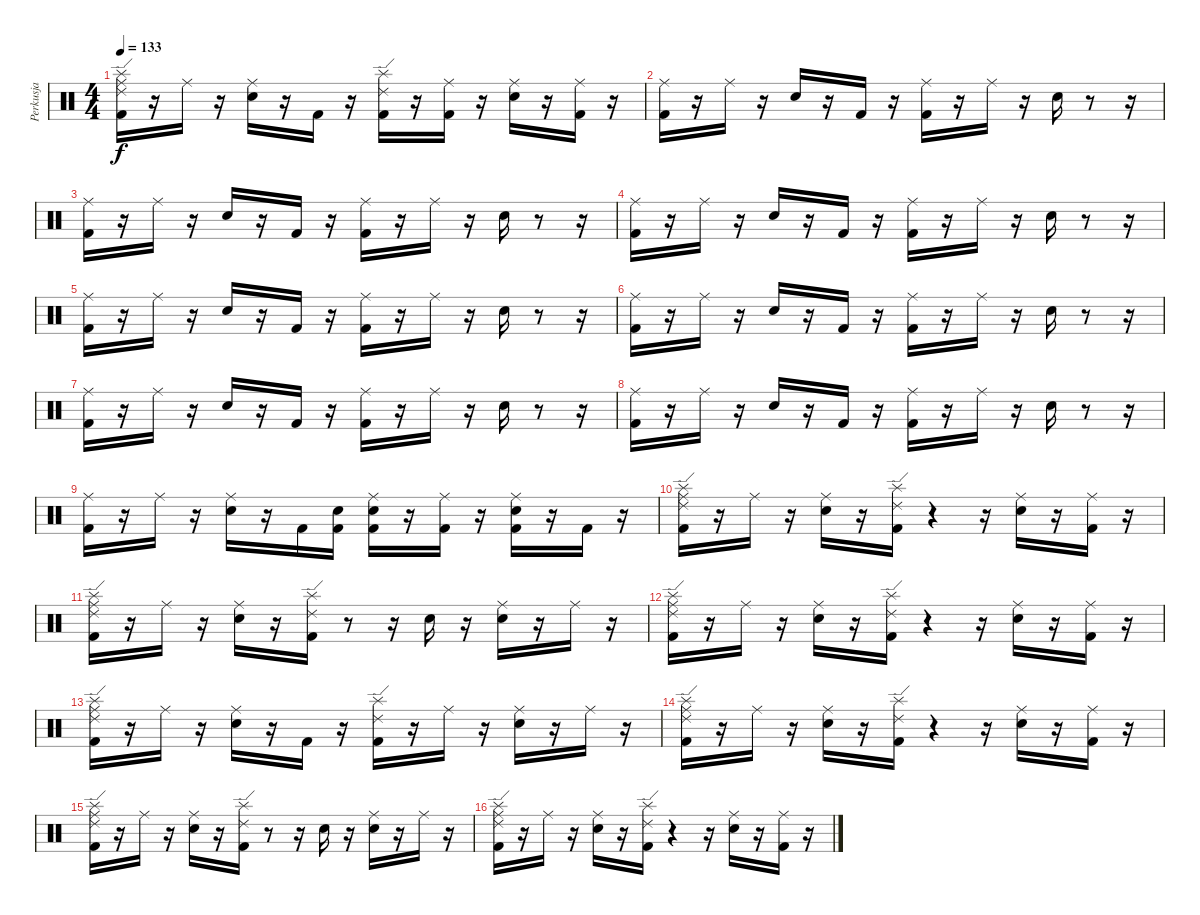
\track ("Perkusja" "Perkusja") {instrument percussion}
\staff {score}
\articulation defaults
\ts (4 4)
\tempo 133
\clef neutral
\ks c
("Ride (middle)" "Ride (edge) 2" "Splash (hit)" "Kick (hit) 2").16{dy f} r.16 "Ride (middle)".16 r.16 ("Ride (middle)" "Snare (hit) 2").16 r.16 "Kick (hit) 2".16 r.16 ("Ride (edge) 2" "Splash (hit)" "Kick (hit) 2").16 r.16 ("Kick (hit) 2" "Ride (middle)").16 r.16 ("Ride (middle)" "Snare (hit) 2").16 r.16 ("Kick (hit) 2" "Ride (middle)").16 r.16 |
("Ride (middle)" "Kick (hit) 2").16 r.16 "Ride (middle)".16 r.16 "Snare (hit) 2".16 r.16 "Kick (hit) 2".16 r.16 ("Ride (middle)" "Kick (hit) 2").16 r.16 "Ride (middle)".16 r.16 "Snare (hit) 2".16 r.8 r.16 |
("Kick (hit) 2" "Ride (middle)").16 r.16 "Ride (middle)".16 r.16 "Snare (hit) 2".16 r.16 "Kick (hit) 2".16 r.16 ("Ride (middle)" "Kick (hit) 2").16 r.16 "Ride (middle)".16 r.16 "Snare (hit) 2".16 r.8 r.16 |
("Ride (middle)" "Kick (hit) 2").16 r.16 "Ride (middle)".16 r.16 "Snare (hit) 2".16 r.16 "Kick (hit) 2".16 r.16 ("Ride (middle)" "Kick (hit) 2").16 r.16 "Ride (middle)".16 r.16 "Snare (hit) 2".16 r.8 r.16 |
("Kick (hit) 2" "Ride (middle)").16 r.16 "Ride (middle)".16 r.16 "Snare (hit) 2".16 r.16 "Kick (hit) 2".16 r.16 ("Ride (middle)" "Kick (hit) 2").16 r.16 "Ride (middle)".16 r.16 "Snare (hit) 2".16 r.8 r.16 |
("Ride (middle)" "Kick (hit) 2").16 r.16 "Ride (middle)".16 r.16 "Snare (hit) 2".16 r.16 "Kick (hit) 2".16 r.16 ("Ride (middle)" "Kick (hit) 2").16 r.16 "Ride (middle)".16 r.16 "Snare (hit) 2".16 r.8 r.16 |
("Kick (hit) 2" "Ride (middle)").16 r.16 "Ride (middle)".16 r.16 "Snare (hit) 2".16 r.16 "Kick (hit) 2".16 r.16 ("Ride (middle)" "Kick (hit) 2").16 r.16 "Ride (middle)".16 r.16 "Snare (hit) 2".16 r.8 r.16 |
("Ride (middle)" "Kick (hit) 2").16 r.16 "Ride (middle)".16 r.16 "Snare (hit) 2".16 r.16 "Kick (hit) 2".16 r.16 ("Ride (middle)" "Kick (hit) 2").16 r.16 "Ride (middle)".16 r.16 "Snare (hit) 2".16 r.8 r.16 |
("Kick (hit) 2" "Ride (middle)").16 r.16 "Ride (middle)".16 r.16 ("Ride (middle)" "Snare (hit) 2").16 r.16 "Kick (hit) 2".16 ("Snare (hit)" "Kick (hit) 2").16 ("Snare (hit)" "Ride (middle)" "Kick (hit) 2").16 r.16 ("Ride (middle)" "Kick (hit) 2").16 r.16 ("Ride (middle)" "Snare (hit) 2" "Kick (hit) 2").16 r.16 "Kick (hit) 2".16 r.16 |
("Ride (middle)" "Ride (edge) 2" "Splash (hit)" "Kick (hit) 2").16 r.16 "Ride (middle)".16 r.16 ("Ride (middle)" "Snare (hit) 2").16 r.16 ("Splash (hit)" "Ride (edge) 2" "Kick (hit) 2").16 r.4 r.16 ("Ride (middle)" "Snare (hit) 2").16 r.16 ("Ride (middle)" "Kick (hit) 2").16 r.16 |
("Ride (middle)" "Ride (edge) 2" "Splash (hit)" "Kick (hit) 2").16 r.16 "Ride (middle)".16 r.16 ("Ride (middle)" "Snare (hit) 2").16 r.16 ("Splash (hit)" "Ride (edge) 2" "Kick (hit) 2").16 r.8 r.16 "Snare (hit) 2".16 r.16 ("Ride (middle)" "Snare (hit) 2").16 r.16 "Ride (middle)".16 r.16 |
("Ride (middle)" "Ride (edge) 2" "Splash (hit)" "Kick (hit) 2").16 r.16 "Ride (middle)".16 r.16 ("Ride (middle)" "Snare (hit) 2").16 r.16 ("Splash (hit)" "Ride (edge) 2" "Kick (hit) 2").16 r.4 r.16 ("Ride (middle)" "Snare (hit) 2").16 r.16 ("Ride (middle)" "Kick (hit) 2").16 r.16 |
("Ride (middle)" "Ride (edge) 2" "Splash (hit)" "Kick (hit) 2").16 r.16 "Ride (middle)".16 r.16 ("Ride (middle)" "Snare (hit) 2").16 r.16 "Kick (hit) 2".16 r.16 ("Ride (edge) 2" "Splash (hit)" "Kick (hit) 2").16 r.16 "Ride (middle)".16 r.16 ("Ride (middle)" "Snare (hit) 2").16 r.16 "Ride (middle)".16 r.16 |
("Ride (middle)" "Ride (edge) 2" "Splash (hit)" "Kick (hit) 2").16 r.16 "Ride (middle)".16 r.16 ("Ride (middle)" "Snare (hit) 2").16 r.16 ("Splash (hit)" "Ride (edge) 2" "Kick (hit) 2").16 r.4 r.16 ("Ride (middle)" "Snare (hit) 2").16 r.16 ("Ride (middle)" "Kick (hit) 2").16 r.16 |
("Ride (middle)" "Ride (edge) 2" "Splash (hit)" "Kick (hit) 2").16 r.16 "Ride (middle)".16 r.16 ("Ride (middle)" "Snare (hit) 2").16 r.16 ("Splash (hit)" "Ride (edge) 2" "Kick (hit) 2").16 r.8 r.16 "Snare (hit) 2".16 r.16 ("Ride (middle)" "Snare (hit) 2").16 r.16 "Ride (middle)".16 r.16 |
("Ride (middle)" "Ride (edge) 2" "Splash (hit)" "Kick (hit) 2").16 r.16 "Ride (middle)".16 r.16 ("Ride (middle)" "Snare (hit) 2").16 r.16 ("Splash (hit)" "Ride (edge) 2" "Kick (hit) 2").16 r.4 r.16 ("Ride (middle)" "Snare (hit) 2").16 r.16 ("Ride (middle)" "Kick (hit) 2").16 r.16
